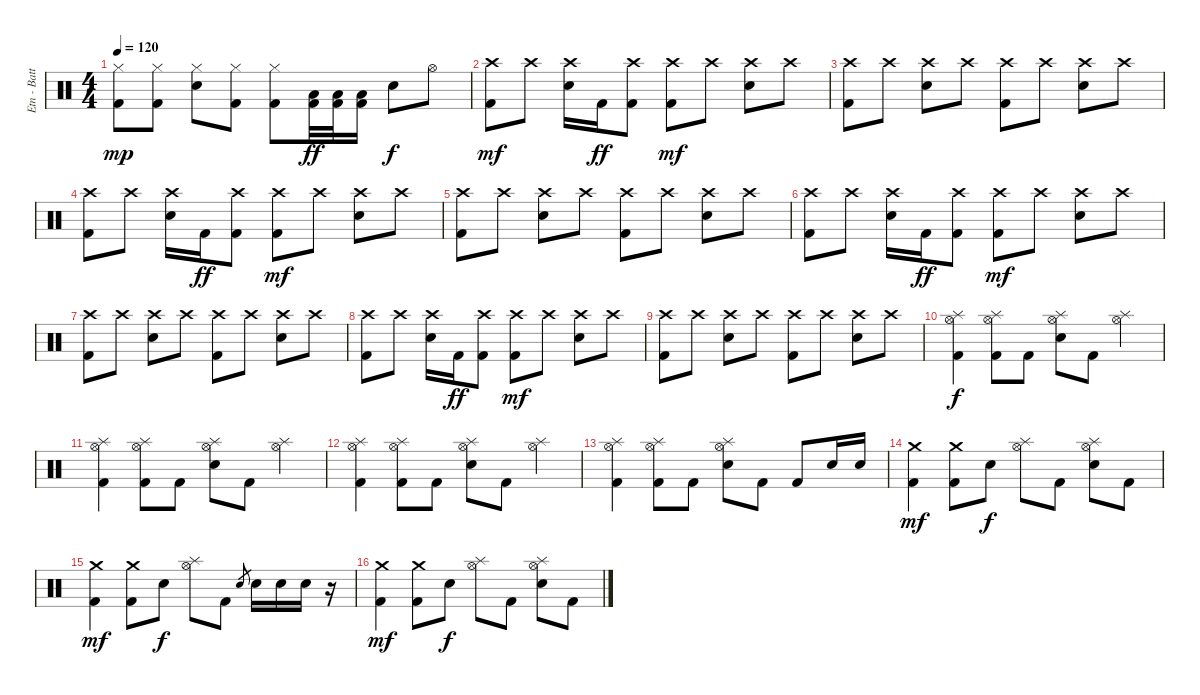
\track ("Etn - Batterie" "Etn - Batt") {instrument percussion}
\staff {score}
\articulation defaults
\ts (4 4)
\tempo 120
\clef neutral
\ks c
("Hi-Hat (closed)" "Kick (hit) 2").8{dy mp} ("Hi-Hat (closed)" "Kick (hit) 2").8 ("Hi-Hat (closed)" "Electric Snare (hit)").8 ("Hi-Hat (closed)" "Kick (hit) 2").8 ("Hi-Hat (closed)" "Kick (hit) 2").8 ("Low Tom (hit)" "Kick (hit) 2").32{dy ff} ("Low Floor Tom (hit)" "Kick (hit) 2").32 ("Low Tom (hit)" "Kick (hit) 2").16 "Electric Snare (hit)".8{dy f} "Hi-Hat (open)".8 |
("Crash high (hit)" "Kick (hit) 2").8{dy mf} "Crash high (hit)".8 ("Crash high (hit)" "Electric Snare (hit)").16 "Kick (hit) 2".16{dy ff} ("Crash high (hit)" "Kick (hit) 2").8 ("Crash high (hit)" "Kick (hit) 2").8{dy mf} "Crash high (hit)".8 ("Crash high (hit)" "Electric Snare (hit)").8 "Crash high (hit)".8 |
("Crash high (hit)" "Kick (hit) 2").8 "Crash high (hit)".8 ("Crash high (hit)" "Electric Snare (hit)").8 "Crash high (hit)".8 ("Crash high (hit)" "Kick (hit) 2").8 "Crash high (hit)".8 ("Crash high (hit)" "Electric Snare (hit)").8 "Crash high (hit)".8 |
("Crash high (hit)" "Kick (hit) 2").8 "Crash high (hit)".8 ("Crash high (hit)" "Electric Snare (hit)").16 "Kick (hit) 2".16{dy ff} ("Crash high (hit)" "Kick (hit) 2").8 ("Crash high (hit)" "Kick (hit) 2").8{dy mf} "Crash high (hit)".8 ("Crash high (hit)" "Electric Snare (hit)").8 "Crash high (hit)".8 |
("Crash high (hit)" "Kick (hit) 2").8 "Crash high (hit)".8 ("Crash high (hit)" "Electric Snare (hit)").8 "Crash high (hit)".8 ("Crash high (hit)" "Kick (hit) 2").8 "Crash high (hit)".8 ("Crash high (hit)" "Electric Snare (hit)").8 "Crash high (hit)".8 |
("Crash high (hit)" "Kick (hit) 2").8 "Crash high (hit)".8 ("Crash high (hit)" "Electric Snare (hit)").16 "Kick (hit) 2".16{dy ff} ("Crash high (hit)" "Kick (hit) 2").8 ("Crash high (hit)" "Kick (hit) 2").8{dy mf} "Crash high (hit)".8 ("Crash high (hit)" "Electric Snare (hit)").8 "Crash high (hit)".8 |
("Crash high (hit)" "Kick (hit) 2").8 "Crash high (hit)".8 ("Crash high (hit)" "Electric Snare (hit)").8 "Crash high (hit)".8 ("Crash high (hit)" "Kick (hit) 2").8 "Crash high (hit)".8 ("Crash high (hit)" "Electric Snare (hit)").8 "Crash high (hit)".8 |
("Crash high (hit)" "Kick (hit) 2").8 "Crash high (hit)".8 ("Crash high (hit)" "Electric Snare (hit)").16 "Kick (hit) 2".16{dy ff} ("Crash high (hit)" "Kick (hit) 2").8 ("Crash high (hit)" "Kick (hit) 2").8{dy mf} "Crash high (hit)".8 ("Crash high (hit)" "Electric Snare (hit)").8 "Crash high (hit)".8 |
("Crash high (hit)" "Kick (hit) 2").8 "Crash high (hit)".8 ("Crash high (hit)" "Electric Snare (hit)").8 "Crash high (hit)".8 ("Crash high (hit)" "Kick (hit) 2").8 "Crash high (hit)".8 ("Crash high (hit)" "Electric Snare (hit)").8 "Crash high (hit)".8 |
("Hi-Hat (open)" "Splash (hit)" "Kick (hit) 2").4{dy f} ("Hi-Hat (open)" "Splash (hit)" "Kick (hit) 2").8 "Kick (hit) 2".8 ("Hi-Hat (open)" "Splash (hit)" "Electric Snare (hit)").8 "Kick (hit) 2".8 ("Hi-Hat (open)" "Splash (hit)").4 |
("Hi-Hat (open)" "Splash (hit)" "Kick (hit) 2").4 ("Hi-Hat (open)" "Splash (hit)" "Kick (hit) 2").8 "Kick (hit) 2".8 ("Hi-Hat (open)" "Splash (hit)" "Electric Snare (hit)").8 "Kick (hit) 2".8 ("Hi-Hat (open)" "Splash (hit)").4 |
("Hi-Hat (open)" "Splash (hit)" "Kick (hit) 2").4 ("Hi-Hat (open)" "Splash (hit)" "Kick (hit) 2").8 "Kick (hit) 2".8 ("Hi-Hat (open)" "Splash (hit)" "Electric Snare (hit)").8 "Kick (hit) 2".8 ("Hi-Hat (open)" "Splash (hit)").4 |
("Hi-Hat (open)" "Splash (hit)" "Kick (hit) 2").4 ("Hi-Hat (open)" "Splash (hit)" "Kick (hit) 2").8 "Kick (hit) 2".8 ("Hi-Hat (open)" "Splash (hit)" "Electric Snare (hit)").8 "Kick (hit) 2".8 "Kick (hit) 2".8 "Electric Snare (hit)".16 "Electric Snare (hit)".16 |
("Crash medium (hit)" "Kick (hit) 2").4{dy mf} ("Crash medium (hit)" "Kick (hit) 2").8 "Electric Snare (hit)".8{dy f} ("Hi-Hat (open)" "Splash (hit)").8 "Kick (hit) 2".8 ("Hi-Hat (open)" "Splash (hit)" "Electric Snare (hit)").8 "Kick (hit) 2".8 |
("Crash medium (hit)" "Kick (hit) 2").4{dy mf} ("Crash medium (hit)" "Kick (hit) 2").8 "Electric Snare (hit)".8{dy f} ("Hi-Hat (open)" "Splash (hit)").8 "Kick (hit) 2".8 "Electric Snare (hit)".8{gr} "Electric Snare (hit)".16 "Electric Snare (hit)".16 "Electric Snare (hit)".16 r.16 |
("Crash medium (hit)" "Kick (hit) 2").4{dy mf} ("Crash medium (hit)" "Kick (hit) 2").8 "Electric Snare (hit)".8{dy f} ("Hi-Hat (open)" "Splash (hit)").8 "Kick (hit) 2".8 ("Hi-Hat (open)" "Splash (hit)" "Electric Snare (hit)").8 "Kick (hit) 2".8
